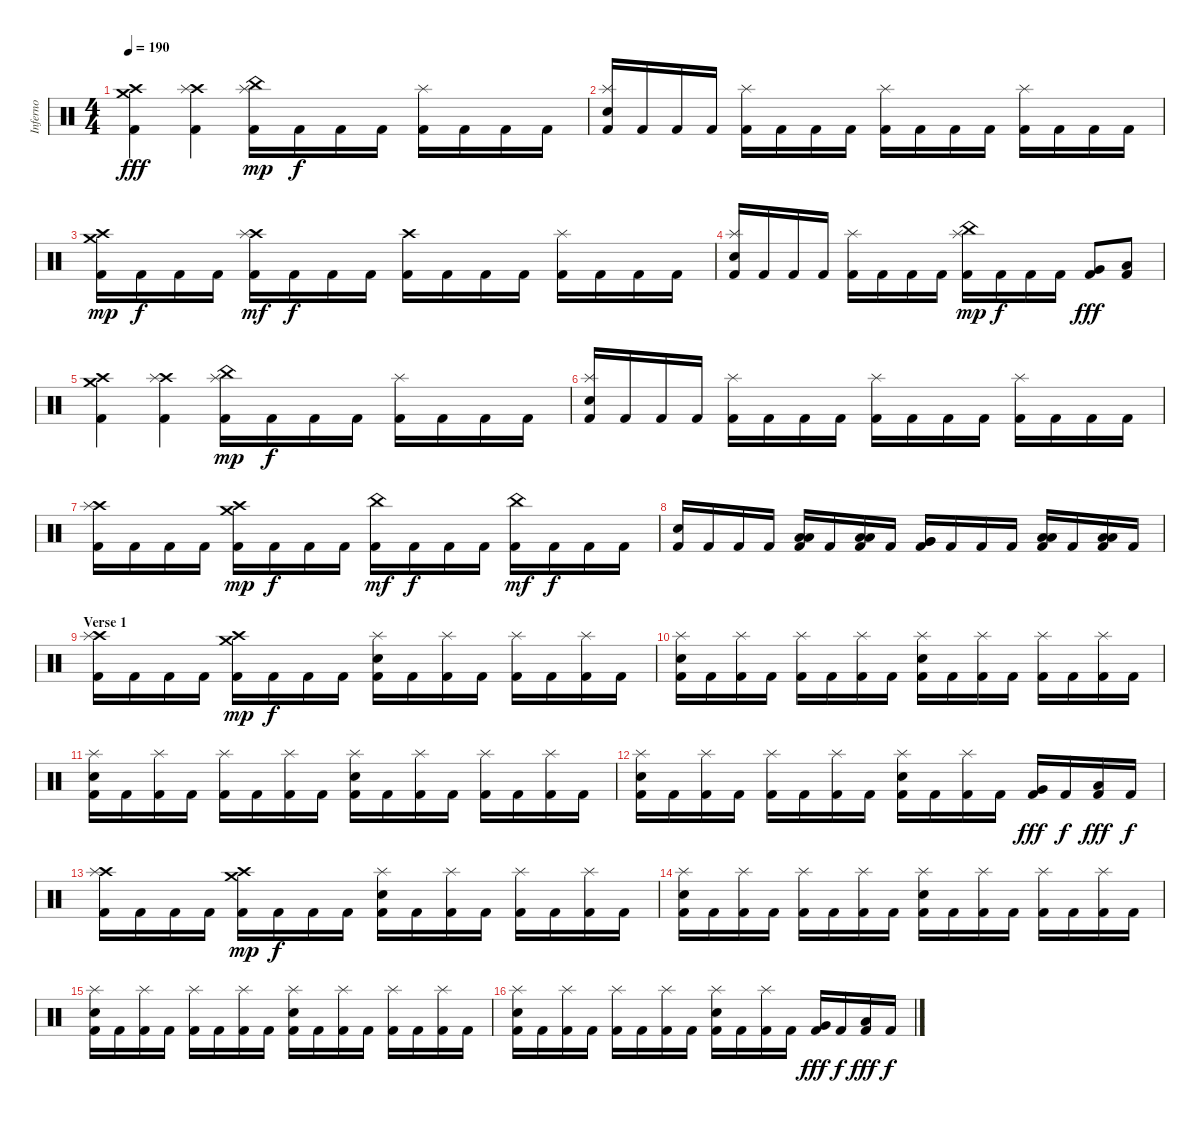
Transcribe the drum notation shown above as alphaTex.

\track ("Inferno" "Inferno") {instrument percussion}
\staff {score}
\articulation defaults
\ts (4 4)
\tempo 190
\clef neutral
\ks c
("Crash high (hit)" "Crash medium (hit)" "Kick (hit) 2").4{dy fff} ("Crash high (hit)" "Splash (hit)" "Kick (hit) 2").4 ("Splash (hit)" "China (hit)" "Kick (hit) 2").16{dy mp} "Kick (hit) 2".16{dy f} "Kick (hit) 2".16 "Kick (hit) 2".16 ("Splash (hit)" "Kick (hit) 2").16 "Kick (hit) 2".16 "Kick (hit) 2".16 "Kick (hit) 2".16 |
("Splash (hit)" "Snare (hit) 2" "Kick (hit) 2").16 "Kick (hit) 2".16 "Kick (hit) 2".16 "Kick (hit) 2".16 ("Splash (hit)" "Kick (hit) 2").16 "Kick (hit) 2".16 "Kick (hit) 2".16 "Kick (hit) 2".16 ("Splash (hit)" "Kick (hit) 2").16 "Kick (hit) 2".16 "Kick (hit) 2".16 "Kick (hit) 2".16 ("Splash (hit)" "Kick (hit) 2").16 "Kick (hit) 2".16 "Kick (hit) 2".16 "Kick (hit) 2".16 |
("Crash high (hit)" "Crash medium (hit)" "Kick (hit) 2").16{dy mp} "Kick (hit) 2".16{dy f} "Kick (hit) 2".16 "Kick (hit) 2".16 ("Crash high (hit)" "Splash (hit)" "Kick (hit) 2").16{dy mf} "Kick (hit) 2".16{dy f} "Kick (hit) 2".16 "Kick (hit) 2".16 ("Crash high (hit)" "Kick (hit) 2").16 "Kick (hit) 2".16 "Kick (hit) 2".16 "Kick (hit) 2".16 ("Splash (hit)" "Kick (hit) 2").16 "Kick (hit) 2".16 "Kick (hit) 2".16 "Kick (hit) 2".16 |
("Splash (hit)" "Snare (hit) 2" "Kick (hit) 2").16 "Kick (hit) 2".16 "Kick (hit) 2".16 "Kick (hit) 2".16 ("Splash (hit)" "Kick (hit) 2").16 "Kick (hit) 2".16 "Kick (hit) 2".16 "Kick (hit) 2".16 ("Splash (hit)" "China (hit)" "Kick (hit) 2").16{dy mp} "Kick (hit) 2".16{dy f} "Kick (hit) 2".16 "Kick (hit) 2".16 ("Very Low Tom (hit)" "Kick (hit) 2").8{dy fff} ("Low Floor Tom (hit)" "Kick (hit) 2").8 |
("Crash high (hit)" "Crash medium (hit)" "Kick (hit) 2").4 ("Crash high (hit)" "Splash (hit)" "Kick (hit) 2").4 ("Splash (hit)" "China (hit)" "Kick (hit) 2").16{dy mp} "Kick (hit) 2".16{dy f} "Kick (hit) 2".16 "Kick (hit) 2".16 ("Splash (hit)" "Kick (hit) 2").16 "Kick (hit) 2".16 "Kick (hit) 2".16 "Kick (hit) 2".16 |
("Splash (hit)" "Snare (hit) 2" "Kick (hit) 2").16 "Kick (hit) 2".16 "Kick (hit) 2".16 "Kick (hit) 2".16 ("Splash (hit)" "Kick (hit) 2").16 "Kick (hit) 2".16 "Kick (hit) 2".16 "Kick (hit) 2".16 ("Splash (hit)" "Kick (hit) 2").16 "Kick (hit) 2".16 "Kick (hit) 2".16 "Kick (hit) 2".16 ("Splash (hit)" "Kick (hit) 2").16 "Kick (hit) 2".16 "Kick (hit) 2".16 "Kick (hit) 2".16 |
("Crash high (hit)" "Splash (hit)" "Kick (hit) 2").16 "Kick (hit) 2".16 "Kick (hit) 2".16 "Kick (hit) 2".16 ("Crash high (hit)" "Crash medium (hit)" "Kick (hit) 2").16{dy mp} "Kick (hit) 2".16{dy f} "Kick (hit) 2".16 "Kick (hit) 2".16 ("China (hit)" "Kick (hit) 2").16{dy mf} "Kick (hit) 2".16{dy f} "Kick (hit) 2".16 "Kick (hit) 2".16 ("China (hit)" "Kick (hit) 2").16{dy mf} "Kick (hit) 2".16{dy f} "Kick (hit) 2".16 "Kick (hit) 2".16 |
("Snare (hit) 2" "Kick (hit) 2").16 "Kick (hit) 2".16 "Kick (hit) 2".16 "Kick (hit) 2".16 ("Low Floor Tom (hit)" "Low Floor Tom (hit)" "Kick (hit) 2").16 "Kick (hit) 2".16 ("Low Floor Tom (hit)" "Low Floor Tom (hit)" "Kick (hit) 2").16 "Kick (hit) 2".16 ("Very Low Tom (hit)" "Very Low Tom (hit)" "Kick (hit) 2").16 "Kick (hit) 2".16 "Kick (hit) 2".16 "Kick (hit) 2".16 ("Low Floor Tom (hit)" "Low Floor Tom (hit)" "Kick (hit) 2").16 "Kick (hit) 2".16 ("Low Floor Tom (hit)" "Low Floor Tom (hit)" "Kick (hit) 2").16 "Kick (hit) 2".16 |
\section ("" "Verse 1")
("Crash high (hit)" "Splash (hit)" "Kick (hit) 2").16 "Kick (hit) 2".16 "Kick (hit) 2".16 "Kick (hit) 2".16 ("Crash high (hit)" "Crash medium (hit)" "Kick (hit) 2").16{dy mp} "Kick (hit) 2".16{dy f} "Kick (hit) 2".16 "Kick (hit) 2".16 ("Splash (hit)" "Snare (hit) 2" "Kick (hit) 2").16 "Kick (hit) 2".16 ("Splash (hit)" "Kick (hit) 2").16 "Kick (hit) 2".16 ("Splash (hit)" "Kick (hit) 2").16 "Kick (hit) 2".16 ("Splash (hit)" "Kick (hit) 2").16 "Kick (hit) 2".16 |
("Splash (hit)" "Snare (hit) 2" "Kick (hit) 2").16 "Kick (hit) 2".16 ("Splash (hit)" "Kick (hit) 2").16 "Kick (hit) 2".16 ("Splash (hit)" "Kick (hit) 2").16 "Kick (hit) 2".16 ("Splash (hit)" "Kick (hit) 2").16 "Kick (hit) 2".16 ("Splash (hit)" "Snare (hit) 2" "Kick (hit) 2").16 "Kick (hit) 2".16 ("Splash (hit)" "Kick (hit) 2").16 "Kick (hit) 2".16 ("Splash (hit)" "Kick (hit) 2").16 "Kick (hit) 2".16 ("Splash (hit)" "Kick (hit) 2").16 "Kick (hit) 2".16 |
("Splash (hit)" "Snare (hit) 2" "Kick (hit) 2").16 "Kick (hit) 2".16 ("Splash (hit)" "Kick (hit) 2").16 "Kick (hit) 2".16 ("Splash (hit)" "Kick (hit) 2").16 "Kick (hit) 2".16 ("Splash (hit)" "Kick (hit) 2").16 "Kick (hit) 2".16 ("Splash (hit)" "Snare (hit) 2" "Kick (hit) 2").16 "Kick (hit) 2".16 ("Splash (hit)" "Kick (hit) 2").16 "Kick (hit) 2".16 ("Splash (hit)" "Kick (hit) 2").16 "Kick (hit) 2".16 ("Splash (hit)" "Kick (hit) 2").16 "Kick (hit) 2".16 |
("Splash (hit)" "Snare (hit) 2" "Kick (hit) 2").16 "Kick (hit) 2".16 ("Splash (hit)" "Kick (hit) 2").16 "Kick (hit) 2".16 ("Splash (hit)" "Kick (hit) 2").16 "Kick (hit) 2".16 ("Splash (hit)" "Kick (hit) 2").16 "Kick (hit) 2".16 ("Splash (hit)" "Snare (hit) 2" "Kick (hit) 2").16 "Kick (hit) 2".16 ("Splash (hit)" "Kick (hit) 2").16 "Kick (hit) 2".16 ("Very Low Tom (hit)" "Kick (hit) 2").16{dy fff} "Kick (hit) 2".16{dy f} ("Low Floor Tom (hit)" "Kick (hit) 2").16{dy fff} "Kick (hit) 2".16{dy f} |
("Crash high (hit)" "Splash (hit)" "Kick (hit) 2").16 "Kick (hit) 2".16 "Kick (hit) 2".16 "Kick (hit) 2".16 ("Crash high (hit)" "Crash medium (hit)" "Kick (hit) 2").16{dy mp} "Kick (hit) 2".16{dy f} "Kick (hit) 2".16 "Kick (hit) 2".16 ("Splash (hit)" "Snare (hit) 2" "Kick (hit) 2").16 "Kick (hit) 2".16 ("Splash (hit)" "Kick (hit) 2").16 "Kick (hit) 2".16 ("Splash (hit)" "Kick (hit) 2").16 "Kick (hit) 2".16 ("Splash (hit)" "Kick (hit) 2").16 "Kick (hit) 2".16 |
("Splash (hit)" "Snare (hit) 2" "Kick (hit) 2").16 "Kick (hit) 2".16 ("Splash (hit)" "Kick (hit) 2").16 "Kick (hit) 2".16 ("Splash (hit)" "Kick (hit) 2").16 "Kick (hit) 2".16 ("Splash (hit)" "Kick (hit) 2").16 "Kick (hit) 2".16 ("Splash (hit)" "Snare (hit) 2" "Kick (hit) 2").16 "Kick (hit) 2".16 ("Splash (hit)" "Kick (hit) 2").16 "Kick (hit) 2".16 ("Splash (hit)" "Kick (hit) 2").16 "Kick (hit) 2".16 ("Splash (hit)" "Kick (hit) 2").16 "Kick (hit) 2".16 |
("Splash (hit)" "Snare (hit) 2" "Kick (hit) 2").16 "Kick (hit) 2".16 ("Splash (hit)" "Kick (hit) 2").16 "Kick (hit) 2".16 ("Splash (hit)" "Kick (hit) 2").16 "Kick (hit) 2".16 ("Splash (hit)" "Kick (hit) 2").16 "Kick (hit) 2".16 ("Splash (hit)" "Snare (hit) 2" "Kick (hit) 2").16 "Kick (hit) 2".16 ("Splash (hit)" "Kick (hit) 2").16 "Kick (hit) 2".16 ("Splash (hit)" "Kick (hit) 2").16 "Kick (hit) 2".16 ("Splash (hit)" "Kick (hit) 2").16 "Kick (hit) 2".16 |
("Splash (hit)" "Snare (hit) 2" "Kick (hit) 2").16 "Kick (hit) 2".16 ("Splash (hit)" "Kick (hit) 2").16 "Kick (hit) 2".16 ("Splash (hit)" "Kick (hit) 2").16 "Kick (hit) 2".16 ("Splash (hit)" "Kick (hit) 2").16 "Kick (hit) 2".16 ("Splash (hit)" "Snare (hit) 2" "Kick (hit) 2").16 "Kick (hit) 2".16 ("Splash (hit)" "Kick (hit) 2").16 "Kick (hit) 2".16 ("Very Low Tom (hit)" "Kick (hit) 2").16{dy fff} "Kick (hit) 2".16{dy f} ("Low Floor Tom (hit)" "Kick (hit) 2").16{dy fff} "Kick (hit) 2".16{dy f}
